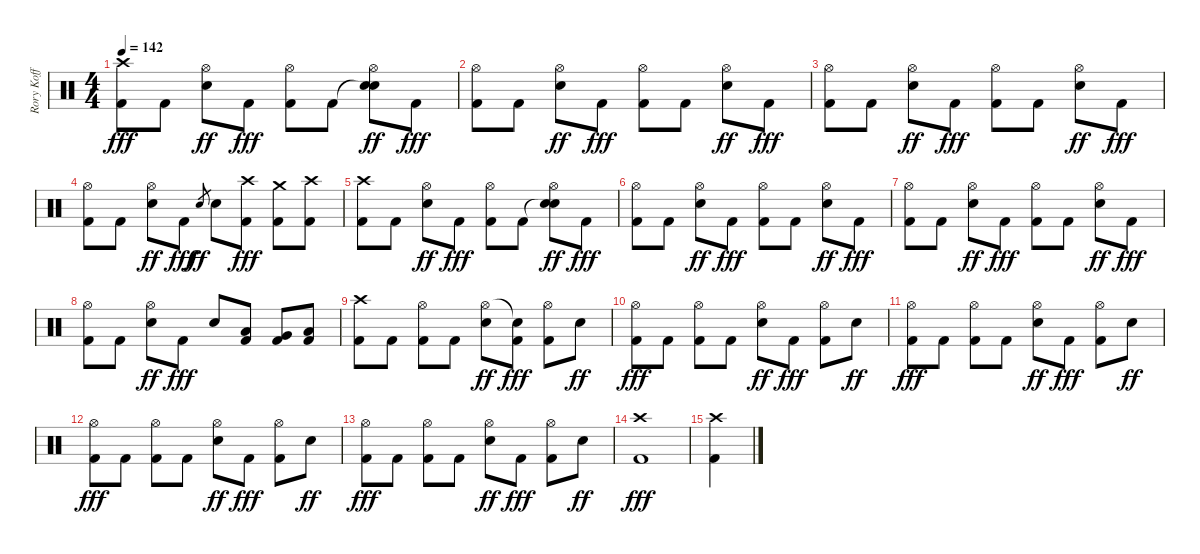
\track ("Rory Koff" "Rory Koff") {instrument percussion}
\staff {score}
\articulation defaults
\ts (4 4)
\tempo 142
\clef neutral
\ks c
("Crash high (hit)" "Kick (hit) 2").8{dy fff} "Kick (hit) 2".8 ("Hi-Hat (open)" "Electric Snare (hit)").8{dy ff} "Kick (hit) 2".8{dy fff} ("Hi-Hat (open)" "Kick (hit) 2").8 "Kick (hit) 2".8 ("Snare (hit)"{t} "Hi-Hat (open)" "Electric Snare (hit)").8{dy ff} "Kick (hit) 2".8{dy fff} |
("Hi-Hat (open)" "Kick (hit) 2").8 "Kick (hit) 2".8 ("Hi-Hat (open)" "Electric Snare (hit)").8{dy ff} "Kick (hit) 2".8{dy fff} ("Hi-Hat (open)" "Kick (hit) 2").8 "Kick (hit) 2".8 ("Hi-Hat (open)" "Electric Snare (hit)").8{dy ff} "Kick (hit) 2".8{dy fff} |
("Hi-Hat (open)" "Kick (hit) 2").8 "Kick (hit) 2".8 ("Hi-Hat (open)" "Electric Snare (hit)").8{dy ff} "Kick (hit) 2".8{dy fff} ("Hi-Hat (open)" "Kick (hit) 2").8 "Kick (hit) 2".8 ("Hi-Hat (open)" "Electric Snare (hit)").8{dy ff} "Kick (hit) 2".8{dy fff} |
("Hi-Hat (open)" "Kick (hit) 2").8 "Kick (hit) 2".8 ("Hi-Hat (open)" "Electric Snare (hit)").8{dy ff} "Kick (hit) 2".8{dy fff} "Electric Snare (hit)".8{gr dy ff} "Electric Snare (hit)".8 ("Crash high (hit)" "Kick (hit) 2").8{dy fff} ("Crash medium (hit)" "Kick (hit) 2").8 ("Crash high (hit)" "Kick (hit) 2").8 |
("Crash high (hit)" "Kick (hit) 2").8 "Kick (hit) 2".8 ("Hi-Hat (open)" "Electric Snare (hit)").8{dy ff} "Kick (hit) 2".8{dy fff} ("Hi-Hat (open)" "Kick (hit) 2").8 "Kick (hit) 2".8 ("Snare (hit)"{t} "Hi-Hat (open)" "Electric Snare (hit)").8{dy ff} "Kick (hit) 2".8{dy fff} |
("Hi-Hat (open)" "Kick (hit) 2").8 "Kick (hit) 2".8 ("Hi-Hat (open)" "Electric Snare (hit)").8{dy ff} "Kick (hit) 2".8{dy fff} ("Hi-Hat (open)" "Kick (hit) 2").8 "Kick (hit) 2".8 ("Hi-Hat (open)" "Electric Snare (hit)").8{dy ff} "Kick (hit) 2".8{dy fff} |
("Hi-Hat (open)" "Kick (hit) 2").8 "Kick (hit) 2".8 ("Hi-Hat (open)" "Electric Snare (hit)").8{dy ff} "Kick (hit) 2".8{dy fff} ("Hi-Hat (open)" "Kick (hit) 2").8 "Kick (hit) 2".8 ("Hi-Hat (open)" "Electric Snare (hit)").8{dy ff} "Kick (hit) 2".8{dy fff} |
("Hi-Hat (open)" "Kick (hit) 2").8 "Kick (hit) 2".8 ("Hi-Hat (open)" "Electric Snare (hit)").8{dy ff} "Kick (hit) 2".8{dy fff} "Electric Snare (hit)".8 ("Low Tom (hit)" "Kick (hit) 2").8 ("Very Low Tom (hit)" "Kick (hit) 2").8 ("Low Floor Tom (hit)" "Kick (hit) 2").8 |
("Crash high (hit)" "Kick (hit) 2").8 "Kick (hit) 2".8 ("Hi-Hat (open)" "Kick (hit) 2").8 "Kick (hit) 2".8 ("Hi-Hat (open)" "Electric Snare (hit)").8{dy ff} ("Snare (hit)"{t} "Kick (hit) 2").8{dy fff} ("Hi-Hat (open)" "Kick (hit) 2").8 "Electric Snare (hit)".8{dy ff} |
("Hi-Hat (open)" "Kick (hit) 2").8{dy fff} "Kick (hit) 2".8 ("Hi-Hat (open)" "Kick (hit) 2").8 "Kick (hit) 2".8 ("Hi-Hat (open)" "Electric Snare (hit)").8{dy ff} "Kick (hit) 2".8{dy fff} ("Hi-Hat (open)" "Kick (hit) 2").8 "Electric Snare (hit)".8{dy ff} |
("Hi-Hat (open)" "Kick (hit) 2").8{dy fff} "Kick (hit) 2".8 ("Hi-Hat (open)" "Kick (hit) 2").8 "Kick (hit) 2".8 ("Hi-Hat (open)" "Electric Snare (hit)").8{dy ff} "Kick (hit) 2".8{dy fff} ("Hi-Hat (open)" "Kick (hit) 2").8 "Electric Snare (hit)".8{dy ff} |
("Hi-Hat (open)" "Kick (hit) 2").8{dy fff} "Kick (hit) 2".8 ("Hi-Hat (open)" "Kick (hit) 2").8 "Kick (hit) 2".8 ("Hi-Hat (open)" "Electric Snare (hit)").8{dy ff} "Kick (hit) 2".8{dy fff} ("Hi-Hat (open)" "Kick (hit) 2").8 "Electric Snare (hit)".8{dy ff} |
("Hi-Hat (open)" "Kick (hit) 2").8{dy fff} "Kick (hit) 2".8 ("Hi-Hat (open)" "Kick (hit) 2").8 "Kick (hit) 2".8 ("Hi-Hat (open)" "Electric Snare (hit)").8{dy ff} "Kick (hit) 2".8{dy fff} ("Hi-Hat (open)" "Kick (hit) 2").8 "Electric Snare (hit)".8{dy ff} |
("Crash high (hit)" "Kick (hit) 2").1{dy fff} |
("Crash high (hit)" "Kick (hit) 2").4
